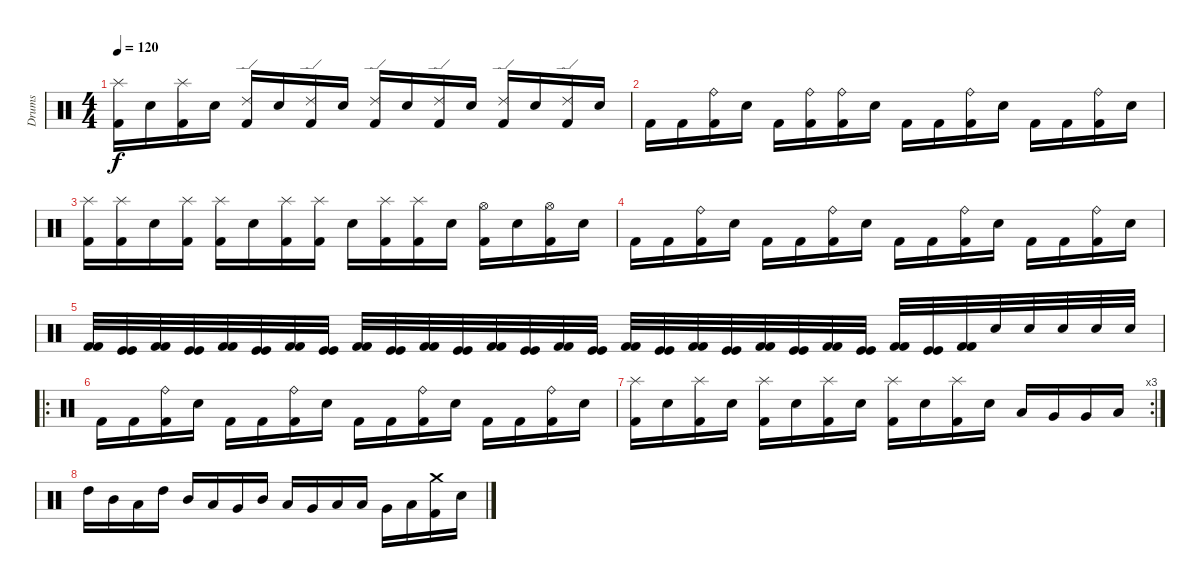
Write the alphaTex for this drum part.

\track ("Drums" "Drums") {instrument percussion}
\staff {score}
\articulation defaults
\ts (4 4)
\tempo 120
\clef neutral
\ks c
("Splash (hit)" "Kick (hit) 2").16{dy f} "Electric Snare (hit)".16 ("Splash (hit)" "Kick (hit) 2").16 "Electric Snare (hit)".16 ("Ride (edge) 2" "Kick (hit) 2").16 "Electric Snare (hit)".16 ("Ride (edge) 2" "Kick (hit) 2").16 "Electric Snare (hit)".16 ("Ride (edge) 2" "Kick (hit) 2").16 "Electric Snare (hit)".16 ("Ride (edge) 2" "Kick (hit) 2").16 "Electric Snare (hit)".16 ("Ride (edge) 2" "Kick (hit) 2").16 "Electric Snare (hit)".16 ("Ride (edge) 2" "Kick (hit) 2").16 "Electric Snare (hit)".16 |
"Kick (hit) 2".16 "Kick (hit) 2".16 ("Ride (bell)" "Kick (hit) 2").16 "Electric Snare (hit)".16 "Kick (hit) 2".16 ("Ride (bell)" "Kick (hit) 2").16 ("Ride (bell)" "Kick (hit) 2").16 "Electric Snare (hit)".16 "Kick (hit) 2".16 "Kick (hit) 2".16 ("Ride (bell)" "Kick (hit) 2").16 "Electric Snare (hit)".16 "Kick (hit) 2".16 "Kick (hit) 2".16 ("Ride (bell)" "Kick (hit) 2").16 "Electric Snare (hit)".16 |
("Splash (hit)" "Kick (hit) 2").16 ("Splash (hit)" "Kick (hit) 2").16 "Electric Snare (hit)".16 ("Splash (hit)" "Kick (hit) 2").16 ("Splash (hit)" "Kick (hit) 2").16 "Electric Snare (hit)".16 ("Splash (hit)" "Kick (hit) 2").16 ("Splash (hit)" "Kick (hit) 2").16 "Electric Snare (hit)".16 ("Splash (hit)" "Kick (hit) 2").16 ("Splash (hit)" "Kick (hit) 2").16 "Electric Snare (hit)".16 ("Hi-Hat (open)" "Kick (hit) 2").16 "Electric Snare (hit)".16 ("Hi-Hat (open)" "Kick (hit) 2").16 "Electric Snare (hit)".16 |
"Kick (hit) 2".16 "Kick (hit) 2".16 ("Ride (bell)" "Kick (hit) 2").16 "Electric Snare (hit)".16 "Kick (hit) 2".16 "Kick (hit) 2".16 ("Ride (bell)" "Kick (hit) 2").16 "Electric Snare (hit)".16 "Kick (hit) 2".16 "Kick (hit) 2".16 ("Ride (bell)" "Kick (hit) 2").16 "Electric Snare (hit)".16 "Kick (hit) 2".16 "Kick (hit) 2".16 ("Ride (bell)" "Kick (hit) 2").16 "Electric Snare (hit)".16 |
("Kick (hit) 2" "Kick (hit) 2").32 ("Kick (hit)" "Kick (hit)").32 ("Kick (hit) 2" "Kick (hit) 2").32 ("Kick (hit)" "Kick (hit)").32 ("Kick (hit) 2" "Kick (hit) 2").32 ("Kick (hit)" "Kick (hit)").32 ("Kick (hit) 2" "Kick (hit) 2").32 ("Kick (hit)" "Kick (hit)").32 ("Kick (hit) 2" "Kick (hit) 2").32 ("Kick (hit)" "Kick (hit)").32 ("Kick (hit) 2" "Kick (hit) 2").32 ("Kick (hit)" "Kick (hit)").32 ("Kick (hit) 2" "Kick (hit) 2").32 ("Kick (hit)" "Kick (hit)").32 ("Kick (hit) 2" "Kick (hit) 2").32 ("Kick (hit)" "Kick (hit)").32 ("Kick (hit) 2" "Kick (hit) 2").32 ("Kick (hit)" "Kick (hit)").32 ("Kick (hit) 2" "Kick (hit) 2").32 ("Kick (hit)" "Kick (hit)").32 ("Kick (hit) 2" "Kick (hit) 2").32 ("Kick (hit)" "Kick (hit)").32 ("Kick (hit) 2" "Kick (hit) 2").32 ("Kick (hit)" "Kick (hit)").32 ("Kick (hit) 2" "Kick (hit) 2").32 ("Kick (hit)" "Kick (hit)").32 ("Kick (hit) 2" "Kick (hit) 2").32 "Electric Snare (hit)".32 "Electric Snare (hit)".32 "Electric Snare (hit)".32 "Electric Snare (hit)".32 "Electric Snare (hit)".32 |
\ro "Kick (hit) 2".16 "Kick (hit) 2".16
("Ride (bell)" "Kick (hit) 2").16 "Electric Snare (hit)".16 "Kick (hit) 2".16 "Kick (hit) 2".16 ("Ride (bell)" "Kick (hit) 2").16 "Electric Snare (hit)".16 "Kick (hit) 2".16 "Kick (hit) 2".16 ("Ride (bell)" "Kick (hit) 2").16 "Electric Snare (hit)".16 "Kick (hit) 2".16 "Kick (hit) 2".16 ("Ride (bell)" "Kick (hit) 2").16 "Electric Snare (hit)".16 |
\rc 3
("Splash (hit)" "Kick (hit) 2").16 "Electric Snare (hit)".16 ("Splash (hit)" "Kick (hit) 2").16 "Electric Snare (hit)".16 ("Splash (hit)" "Kick (hit) 2").16 "Electric Snare (hit)".16 ("Splash (hit)" "Kick (hit) 2").16 "Electric Snare (hit)".16 ("Splash (hit)" "Kick (hit) 2").16 "Electric Snare (hit)".16 ("Splash (hit)" "Kick (hit) 2").16 "Electric Snare (hit)".16 "Low Tom (hit)".16 "Very Low Tom (hit)".16 "Very Low Tom (hit)".16 "Low Floor Tom (hit)".16 |
"High Tom (hit)".16 "Mid Tom (hit)".16 "Low Tom (hit)".16 "High Tom (hit)".16 "Mid Tom (hit)".16 "Low Tom (hit)".16 "Very Low Tom (hit)".16 "Mid Tom (hit)".16 "Low Tom (hit)".16 "Very Low Tom (hit)".16 "Low Floor Tom (hit)".16 "Low Tom (hit)".16 "Very Low Tom (hit)".16 "Low Floor Tom (hit)".16 ("Crash medium (hit)"{pm} "Kick (hit) 2").16 "Electric Snare (hit)".16
